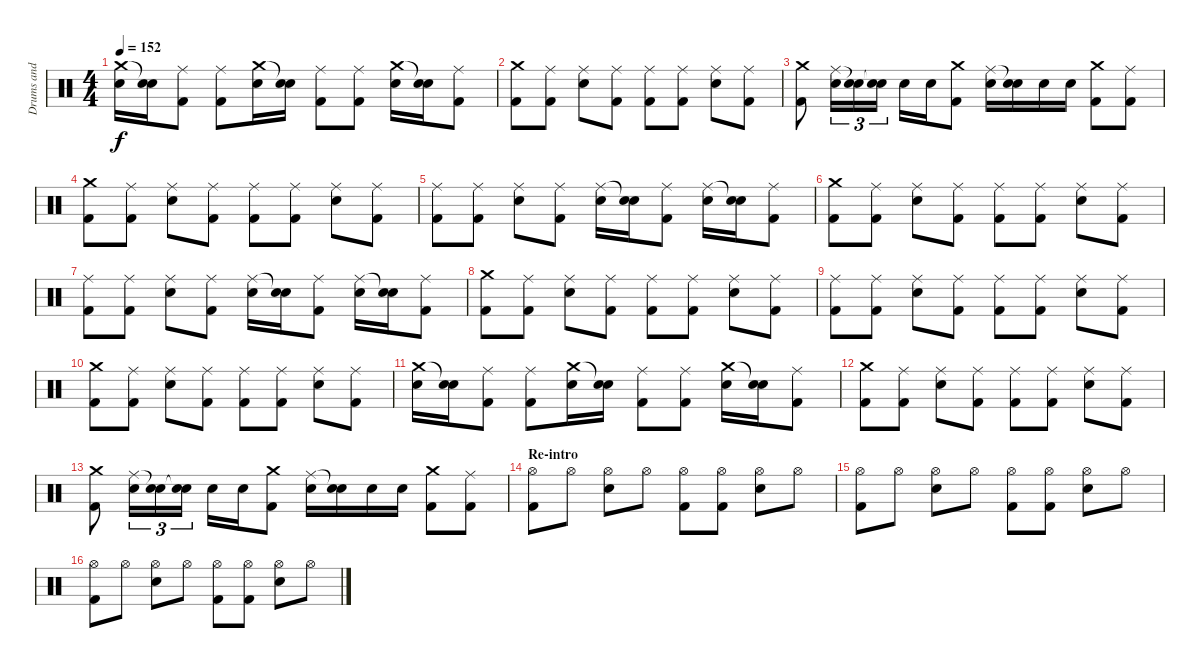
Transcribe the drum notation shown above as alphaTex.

\track ("Drums and Percussion" "Drums and ") {instrument percussion}
\staff {score}
\articulation defaults
\ts (4 4)
\tempo 152
\clef neutral
\ks c
("Crash medium (hit)" "Electric Snare (hit)").16{dy f} ("Snare (hit)"{t} "Electric Snare (hit)").16 ("Ride (middle)" "Kick (hit) 2").8 ("Ride (middle)" "Kick (hit) 2").8 ("Crash medium (hit)" "Electric Snare (hit)").16 ("Snare (hit)"{t} "Electric Snare (hit)").16 ("Ride (middle)" "Kick (hit) 2").8 ("Ride (middle)" "Kick (hit) 2").8 ("Crash medium (hit)" "Electric Snare (hit)").16 ("Snare (hit)"{t} "Electric Snare (hit)").16 ("Ride (middle)" "Kick (hit) 2").8 |
("Crash medium (hit)" "Kick (hit) 2").8 ("Ride (middle)" "Kick (hit) 2").8 ("Ride (middle)" "Electric Snare (hit)").8 ("Ride (middle)" "Kick (hit) 2").8 ("Ride (middle)" "Kick (hit) 2").8 ("Ride (middle)" "Kick (hit) 2").8 ("Ride (middle)" "Electric Snare (hit)").8 ("Ride (middle)" "Kick (hit) 2").8 |
("Crash medium (hit)" "Kick (hit) 2").8 ("Ride (middle)" "Electric Snare (hit)").16{tu (3 2)} ("Snare (hit)"{t} "Electric Snare (hit)").16{tu (3 2)} ("Snare (hit)"{t} "Electric Snare (hit)").16{tu (3 2)} "Electric Snare (hit)".16 "Electric Snare (hit)".16 ("Crash medium (hit)" "Kick (hit) 2").8 ("Ride (middle)" "Electric Snare (hit)").16 ("Snare (hit)"{t} "Electric Snare (hit)").16 "Electric Snare (hit)".16 "Electric Snare (hit)".16 ("Crash medium (hit)" "Kick (hit) 2").8 ("Ride (middle)" "Kick (hit) 2").8 |
("Crash medium (hit)" "Kick (hit) 2").8 ("Ride (middle)" "Kick (hit) 2").8 ("Ride (middle)" "Electric Snare (hit)").8 ("Ride (middle)" "Kick (hit) 2").8 ("Ride (middle)" "Kick (hit) 2").8 ("Ride (middle)" "Kick (hit) 2").8 ("Ride (middle)" "Electric Snare (hit)").8 ("Ride (middle)" "Kick (hit) 2").8 |
("Ride (middle)" "Kick (hit) 2").8 ("Ride (middle)" "Kick (hit) 2").8 ("Ride (middle)" "Electric Snare (hit)").8 ("Ride (middle)" "Kick (hit) 2").8 ("Ride (middle)" "Electric Snare (hit)").16 ("Snare (hit)"{t} "Electric Snare (hit)").16 ("Ride (middle)" "Kick (hit) 2").8 ("Ride (middle)" "Electric Snare (hit)").16 ("Snare (hit)"{t} "Electric Snare (hit)").16 ("Ride (middle)" "Kick (hit) 2").8 |
("Crash medium (hit)" "Kick (hit) 2").8 ("Ride (middle)" "Kick (hit) 2").8 ("Ride (middle)" "Electric Snare (hit)").8 ("Ride (middle)" "Kick (hit) 2").8 ("Ride (middle)" "Kick (hit) 2").8 ("Ride (middle)" "Kick (hit) 2").8 ("Ride (middle)" "Electric Snare (hit)").8 ("Ride (middle)" "Kick (hit) 2").8 |
("Ride (middle)" "Kick (hit) 2").8 ("Ride (middle)" "Kick (hit) 2").8 ("Ride (middle)" "Electric Snare (hit)").8 ("Ride (middle)" "Kick (hit) 2").8 ("Ride (middle)" "Electric Snare (hit)").16 ("Snare (hit)"{t} "Electric Snare (hit)").16 ("Ride (middle)" "Kick (hit) 2").8 ("Ride (middle)" "Electric Snare (hit)").16 ("Snare (hit)"{t} "Electric Snare (hit)").16 ("Ride (middle)" "Kick (hit) 2").8 |
("Crash medium (hit)" "Kick (hit) 2").8 ("Ride (middle)" "Kick (hit) 2").8 ("Ride (middle)" "Electric Snare (hit)").8 ("Ride (middle)" "Kick (hit) 2").8 ("Ride (middle)" "Kick (hit) 2").8 ("Ride (middle)" "Kick (hit) 2").8 ("Ride (middle)" "Electric Snare (hit)").8 ("Ride (middle)" "Kick (hit) 2").8 |
("Ride (middle)" "Kick (hit) 2").8 ("Ride (middle)" "Kick (hit) 2").8 ("Ride (middle)" "Electric Snare (hit)").8 ("Ride (middle)" "Kick (hit) 2").8 ("Ride (middle)" "Kick (hit) 2").8 ("Ride (middle)" "Kick (hit) 2").8 ("Ride (middle)" "Electric Snare (hit)").8 ("Ride (middle)" "Kick (hit) 2").8 |
("Crash medium (hit)" "Kick (hit) 2").8 ("Ride (middle)" "Kick (hit) 2").8 ("Ride (middle)" "Electric Snare (hit)").8 ("Ride (middle)" "Kick (hit) 2").8 ("Ride (middle)" "Kick (hit) 2").8 ("Ride (middle)" "Kick (hit) 2").8 ("Ride (middle)" "Electric Snare (hit)").8 ("Ride (middle)" "Kick (hit) 2").8 |
("Crash medium (hit)" "Electric Snare (hit)").16 ("Snare (hit)"{t} "Electric Snare (hit)").16 ("Ride (middle)" "Kick (hit) 2").8 ("Ride (middle)" "Kick (hit) 2").8 ("Crash medium (hit)" "Electric Snare (hit)").16 ("Snare (hit)"{t} "Electric Snare (hit)").16 ("Ride (middle)" "Kick (hit) 2").8 ("Ride (middle)" "Kick (hit) 2").8 ("Crash medium (hit)" "Electric Snare (hit)").16 ("Snare (hit)"{t} "Electric Snare (hit)").16 ("Ride (middle)" "Kick (hit) 2").8 |
("Crash medium (hit)" "Kick (hit) 2").8 ("Ride (middle)" "Kick (hit) 2").8 ("Ride (middle)" "Electric Snare (hit)").8 ("Ride (middle)" "Kick (hit) 2").8 ("Ride (middle)" "Kick (hit) 2").8 ("Ride (middle)" "Kick (hit) 2").8 ("Ride (middle)" "Electric Snare (hit)").8 ("Ride (middle)" "Kick (hit) 2").8 |
("Crash medium (hit)" "Kick (hit) 2").8 ("Ride (middle)" "Electric Snare (hit)").16{tu (3 2)} ("Snare (hit)"{t} "Electric Snare (hit)").16{tu (3 2)} ("Snare (hit)"{t} "Electric Snare (hit)").16{tu (3 2)} "Electric Snare (hit)".16 "Electric Snare (hit)".16 ("Crash medium (hit)" "Kick (hit) 2").8 ("Ride (middle)" "Electric Snare (hit)").16 ("Snare (hit)"{t} "Electric Snare (hit)").16 "Electric Snare (hit)".16 "Electric Snare (hit)".16 ("Crash medium (hit)" "Kick (hit) 2").8 ("Ride (middle)" "Kick (hit) 2").8 |
\section ("" "Re-intro")
("Hi-Hat (open)" "Kick (hit) 2").8 "Hi-Hat (open)".8 ("Hi-Hat (open)" "Electric Snare (hit)").8 "Hi-Hat (open)".8 ("Hi-Hat (open)" "Kick (hit) 2").8 ("Hi-Hat (open)" "Kick (hit) 2").8 ("Hi-Hat (open)" "Electric Snare (hit)").8 "Hi-Hat (open)".8 |
("Hi-Hat (open)" "Kick (hit) 2").8 "Hi-Hat (open)".8 ("Hi-Hat (open)" "Electric Snare (hit)").8 "Hi-Hat (open)".8 ("Hi-Hat (open)" "Kick (hit) 2").8 ("Hi-Hat (open)" "Kick (hit) 2").8 ("Hi-Hat (open)" "Electric Snare (hit)").8 "Hi-Hat (open)".8 |
("Hi-Hat (open)" "Kick (hit) 2").8 "Hi-Hat (open)".8 ("Hi-Hat (open)" "Electric Snare (hit)").8 "Hi-Hat (open)".8 ("Hi-Hat (open)" "Kick (hit) 2").8 ("Hi-Hat (open)" "Kick (hit) 2").8 ("Hi-Hat (open)" "Electric Snare (hit)").8 "Hi-Hat (open)".8
